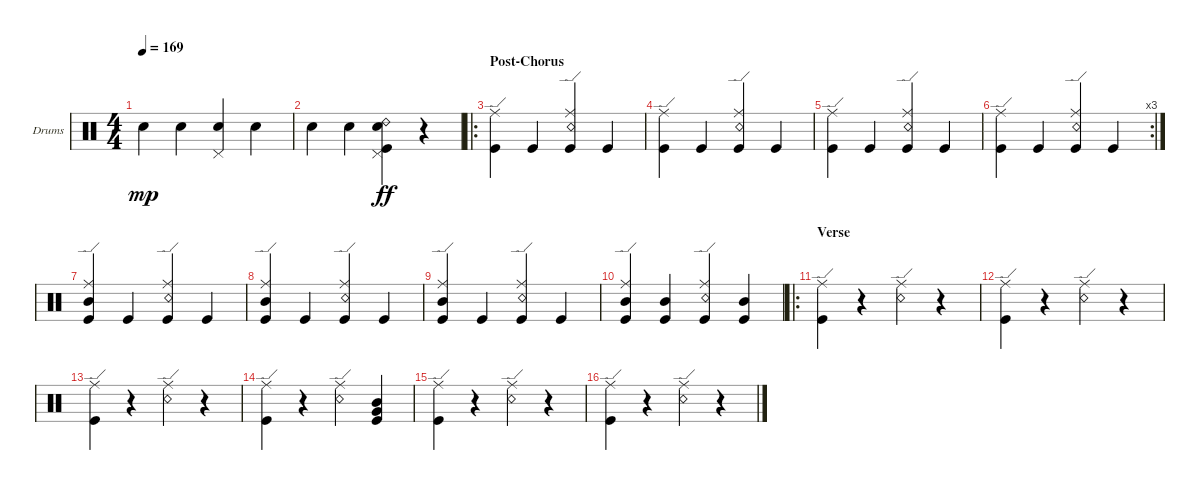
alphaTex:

\bracketExtendMode groupsimilarinstruments
\firstSystemTrackNameOrientation horizontal
\otherSystemsTrackNameOrientation horizontal
\track ("Drumkit" "Drums") {instrument percussion}
\staff {score}
\articulation defaults
\ts (4 4)
\tempo 169
\clef neutral
\ks c "Snare (hit) 2".4{dy mp} "Snare (hit) 2".4
("Snare (hit) 2" "Pedal Hi-Hat (hit)").4 "Snare (hit) 2".4 |
"Snare (hit) 2".4 "Snare (hit) 2".4 ("Snare (hit) 2" "Pedal Hi-Hat (hit)" "Kick (hit)" "Ride (bell) 2").4{dy ff} r.4 |
\ro
\section ("" "Post-Chorus")
("Kick (hit)" "Ride (edge)").4 "Kick (hit)".4 ("Kick (hit)" "Ride (edge)" "Snare (rim shot)").4 "Kick (hit)".4 |
("Kick (hit)" "Ride (edge)").4 "Kick (hit)".4 ("Kick (hit)" "Ride (edge)" "Snare (rim shot)").4 "Kick (hit)".4 |
("Kick (hit)" "Ride (edge)").4 "Kick (hit)".4 ("Kick (hit)" "Ride (edge)" "Snare (rim shot)").4 "Kick (hit)".4 |
\rc 3
("Kick (hit)" "Ride (edge)").4 "Kick (hit)".4 ("Kick (hit)" "Ride (edge)" "Snare (rim shot)").4 "Kick (hit)".4 |
("Kick (hit)" "Ride (edge)" "Mid Tom (hit)").4 "Kick (hit)".4 ("Kick (hit)" "Ride (edge)" "Snare (rim shot)").4 "Kick (hit)".4 |
("Kick (hit)" "Ride (edge)" "Mid Tom (hit)").4 "Kick (hit)".4 ("Kick (hit)" "Ride (edge)" "Snare (rim shot)").4 "Kick (hit)".4 |
("Kick (hit)" "Ride (edge)" "Mid Tom (hit)").4 "Kick (hit)".4 ("Kick (hit)" "Ride (edge)" "Snare (rim shot)").4 "Kick (hit)".4 |
("Kick (hit)" "Ride (edge)" "Mid Tom (hit)").4 ("Kick (hit)" "Mid Tom (hit)").4 ("Kick (hit)" "Ride (edge)" "Snare (rim shot)").4 ("Kick (hit)" "Mid Tom (hit)").4 |
\ro
\section ("" "Verse")
("Kick (hit)" "Ride (edge)").4 r.4 ("Snare (rim shot)" "Ride (edge)").4 r.4 |
("Kick (hit)" "Ride (edge)").4 r.4 ("Snare (rim shot)" "Ride (edge)").4 r.4 |
("Kick (hit)" "Ride (edge)").4 r.4 ("Snare (rim shot)" "Ride (edge)").4 r.4 |
("Kick (hit)" "Ride (edge)").4 r.4 ("Snare (rim shot)" "Ride (edge)").4 ("Mid Tom (hit)" "Very Low Tom (hit)" "Kick (hit)").4 |
("Kick (hit)" "Ride (edge)").4 r.4 ("Snare (rim shot)" "Ride (edge)").4 r.4 |
("Kick (hit)" "Ride (edge)").4 r.4 ("Snare (rim shot)" "Ride (edge)").4 r.4
